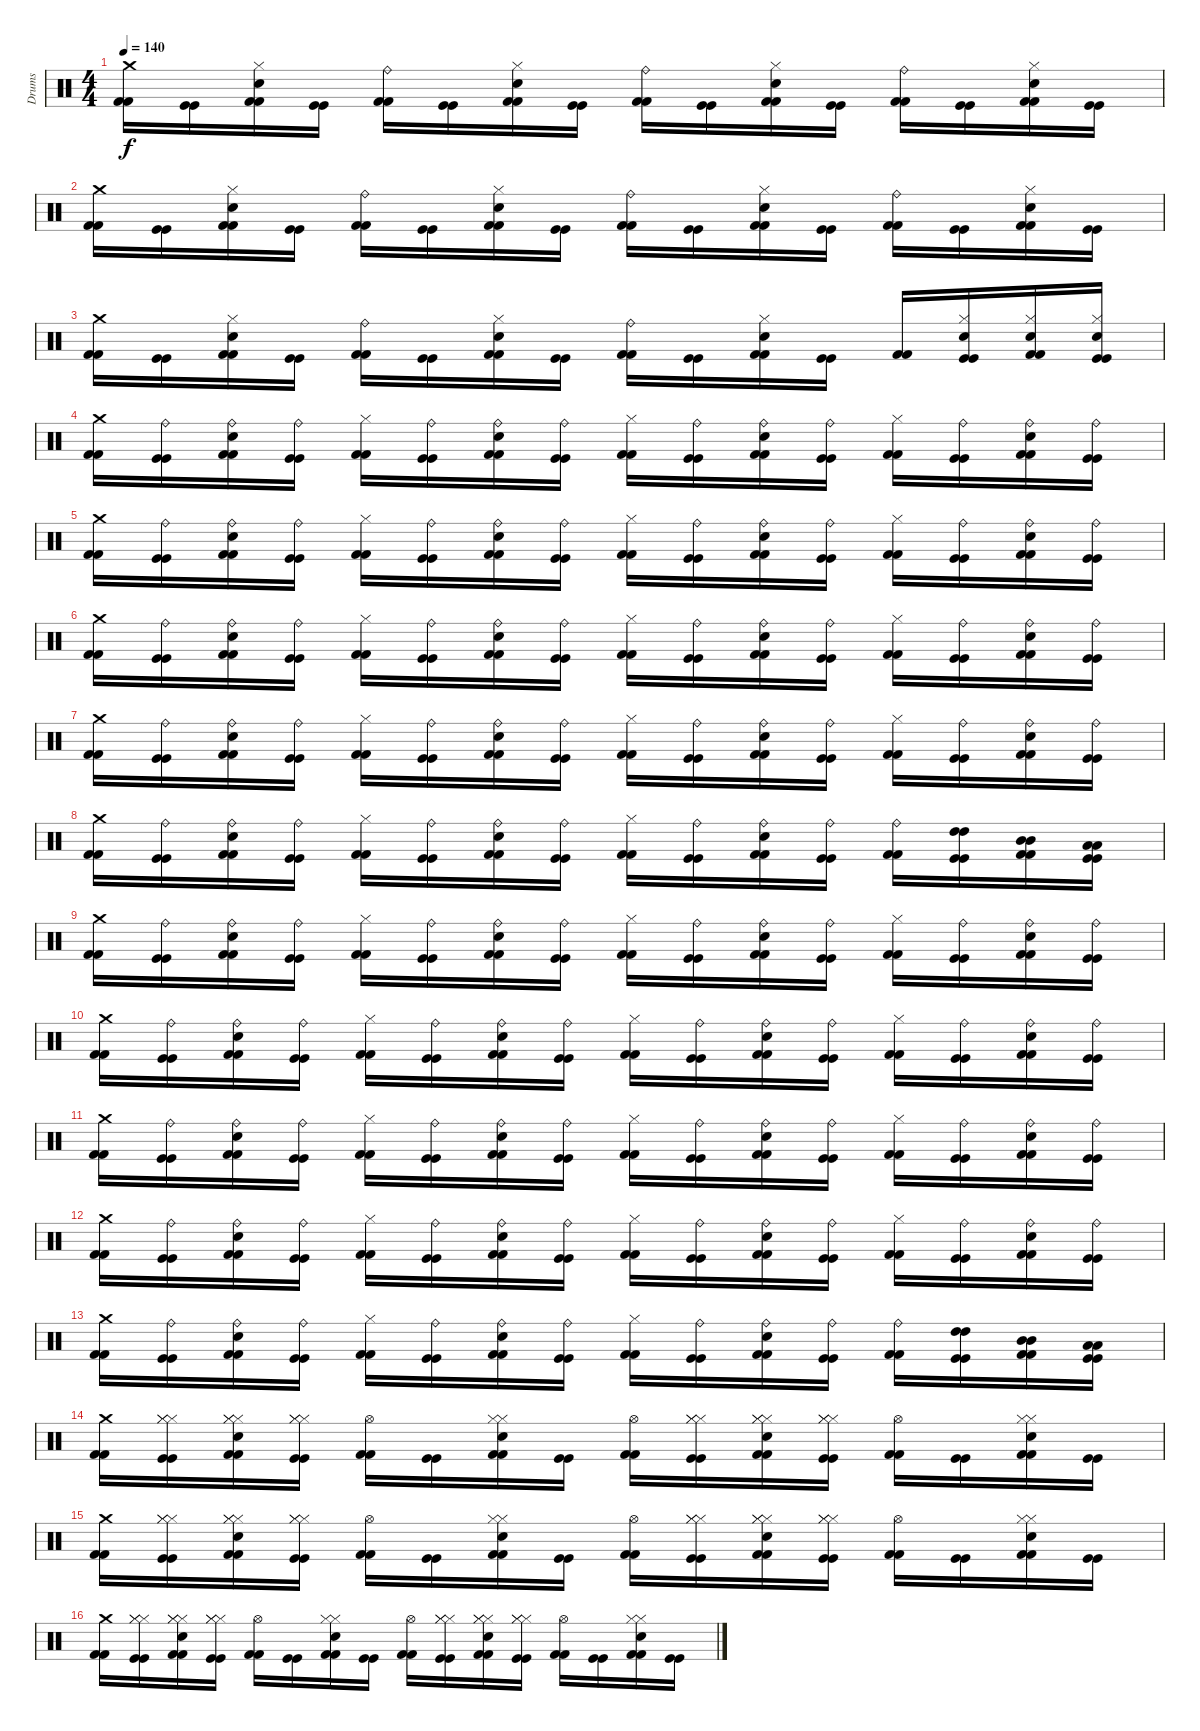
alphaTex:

\track ("Drums" "Drums") {instrument percussion}
\staff {score}
\articulation defaults
\ts (4 4)
\tempo 140
\clef neutral
\ks c
("Crash medium (hit)" "Kick (hit) 2" "Kick (hit) 2").16{dy f} ("Kick (hit)" "Kick (hit)").16 ("Hi-Hat (closed)" "Snare (hit) 2" "Kick (hit) 2" "Kick (hit) 2").16 ("Kick (hit)" "Kick (hit)").16 ("Ride (bell)" "Kick (hit) 2" "Kick (hit) 2").16 ("Kick (hit)" "Kick (hit)").16 ("Hi-Hat (closed)" "Snare (hit) 2" "Kick (hit) 2" "Kick (hit) 2").16 ("Kick (hit)" "Kick (hit)").16 ("Ride (bell)" "Kick (hit) 2" "Kick (hit) 2").16 ("Kick (hit)" "Kick (hit)").16 ("Hi-Hat (closed)" "Snare (hit) 2" "Kick (hit) 2" "Kick (hit) 2").16 ("Kick (hit)" "Kick (hit)").16 ("Ride (bell)" "Kick (hit) 2" "Kick (hit) 2").16 ("Kick (hit)" "Kick (hit)").16 ("Hi-Hat (closed)" "Snare (hit) 2" "Kick (hit) 2" "Kick (hit) 2").16 ("Kick (hit)" "Kick (hit)").16 |
("Crash medium (hit)" "Kick (hit) 2" "Kick (hit) 2").16 ("Kick (hit)" "Kick (hit)").16 ("Hi-Hat (closed)" "Snare (hit) 2" "Kick (hit) 2" "Kick (hit) 2").16 ("Kick (hit)" "Kick (hit)").16 ("Ride (bell)" "Kick (hit) 2" "Kick (hit) 2").16 ("Kick (hit)" "Kick (hit)").16 ("Hi-Hat (closed)" "Snare (hit) 2" "Kick (hit) 2" "Kick (hit) 2").16 ("Kick (hit)" "Kick (hit)").16 ("Ride (bell)" "Kick (hit) 2" "Kick (hit) 2").16 ("Kick (hit)" "Kick (hit)").16 ("Hi-Hat (closed)" "Snare (hit) 2" "Kick (hit) 2" "Kick (hit) 2").16 ("Kick (hit)" "Kick (hit)").16 ("Ride (bell)" "Kick (hit) 2" "Kick (hit) 2").16 ("Kick (hit)" "Kick (hit)").16 ("Hi-Hat (closed)" "Snare (hit) 2" "Kick (hit) 2" "Kick (hit) 2").16 ("Kick (hit)" "Kick (hit)").16 |
("Crash medium (hit)" "Kick (hit) 2" "Kick (hit) 2").16 ("Kick (hit)" "Kick (hit)").16 ("Hi-Hat (closed)" "Snare (hit) 2" "Kick (hit) 2" "Kick (hit) 2").16 ("Kick (hit)" "Kick (hit)").16 ("Ride (bell)" "Kick (hit) 2" "Kick (hit) 2").16 ("Kick (hit)" "Kick (hit)").16 ("Hi-Hat (closed)" "Snare (hit) 2" "Kick (hit) 2" "Kick (hit) 2").16 ("Kick (hit)" "Kick (hit)").16 ("Ride (bell)" "Kick (hit) 2" "Kick (hit) 2").16 ("Kick (hit)" "Kick (hit)").16 ("Hi-Hat (closed)" "Snare (hit) 2" "Kick (hit) 2" "Kick (hit) 2").16 ("Kick (hit)" "Kick (hit)").16 ("Kick (hit) 2" "Kick (hit) 2").16 ("Hi-Hat (closed)" "Snare (hit) 2" "Kick (hit)" "Kick (hit)").16 ("Hi-Hat (closed)" "Snare (hit) 2" "Kick (hit) 2" "Kick (hit) 2").16 ("Hi-Hat (closed)" "Snare (hit) 2" "Kick (hit)" "Kick (hit)").16 |
("Crash medium (hit)" "Kick (hit) 2" "Kick (hit) 2").16 ("Ride (bell)" "Kick (hit)" "Kick (hit)").16 ("Ride (bell)" "Snare (hit) 2" "Kick (hit) 2" "Kick (hit) 2").16 ("Ride (bell)" "Kick (hit)" "Kick (hit)").16 ("Hi-Hat (closed)" "Kick (hit) 2" "Kick (hit) 2").16 ("Ride (bell)" "Kick (hit)" "Kick (hit)").16 ("Ride (bell)" "Snare (hit) 2" "Kick (hit) 2" "Kick (hit) 2").16 ("Ride (bell)" "Kick (hit)" "Kick (hit)").16 ("Hi-Hat (closed)" "Kick (hit) 2" "Kick (hit) 2").16 ("Ride (bell)" "Kick (hit)" "Kick (hit)").16 ("Ride (bell)" "Snare (hit) 2" "Kick (hit) 2" "Kick (hit) 2").16 ("Ride (bell)" "Kick (hit)" "Kick (hit)").16 ("Hi-Hat (closed)" "Kick (hit) 2" "Kick (hit) 2").16 ("Ride (bell)" "Kick (hit)" "Kick (hit)").16 ("Ride (bell)" "Snare (hit) 2" "Kick (hit) 2" "Kick (hit) 2").16 ("Ride (bell)" "Kick (hit)" "Kick (hit)").16 |
("Crash medium (hit)" "Kick (hit) 2" "Kick (hit) 2").16 ("Ride (bell)" "Kick (hit)" "Kick (hit)").16 ("Ride (bell)" "Snare (hit) 2" "Kick (hit) 2" "Kick (hit) 2").16 ("Ride (bell)" "Kick (hit)" "Kick (hit)").16 ("Hi-Hat (closed)" "Kick (hit) 2" "Kick (hit) 2").16 ("Ride (bell)" "Kick (hit)" "Kick (hit)").16 ("Ride (bell)" "Snare (hit) 2" "Kick (hit) 2" "Kick (hit) 2").16 ("Ride (bell)" "Kick (hit)" "Kick (hit)").16 ("Hi-Hat (closed)" "Kick (hit) 2" "Kick (hit) 2").16 ("Ride (bell)" "Kick (hit)" "Kick (hit)").16 ("Ride (bell)" "Snare (hit) 2" "Kick (hit) 2" "Kick (hit) 2").16 ("Ride (bell)" "Kick (hit)" "Kick (hit)").16 ("Hi-Hat (closed)" "Kick (hit) 2" "Kick (hit) 2").16 ("Ride (bell)" "Kick (hit)" "Kick (hit)").16 ("Ride (bell)" "Snare (hit) 2" "Kick (hit) 2" "Kick (hit) 2").16 ("Ride (bell)" "Kick (hit)" "Kick (hit)").16 |
("Crash medium (hit)" "Kick (hit) 2" "Kick (hit) 2").16 ("Ride (bell)" "Kick (hit)" "Kick (hit)").16 ("Ride (bell)" "Snare (hit) 2" "Kick (hit) 2" "Kick (hit) 2").16 ("Ride (bell)" "Kick (hit)" "Kick (hit)").16 ("Hi-Hat (closed)" "Kick (hit) 2" "Kick (hit) 2").16 ("Ride (bell)" "Kick (hit)" "Kick (hit)").16 ("Ride (bell)" "Snare (hit) 2" "Kick (hit) 2" "Kick (hit) 2").16 ("Ride (bell)" "Kick (hit)" "Kick (hit)").16 ("Hi-Hat (closed)" "Kick (hit) 2" "Kick (hit) 2").16 ("Ride (bell)" "Kick (hit)" "Kick (hit)").16 ("Ride (bell)" "Snare (hit) 2" "Kick (hit) 2" "Kick (hit) 2").16 ("Ride (bell)" "Kick (hit)" "Kick (hit)").16 ("Hi-Hat (closed)" "Kick (hit) 2" "Kick (hit) 2").16 ("Ride (bell)" "Kick (hit)" "Kick (hit)").16 ("Ride (bell)" "Snare (hit) 2" "Kick (hit) 2" "Kick (hit) 2").16 ("Ride (bell)" "Kick (hit)" "Kick (hit)").16 |
("Crash medium (hit)" "Kick (hit) 2" "Kick (hit) 2").16 ("Ride (bell)" "Kick (hit)" "Kick (hit)").16 ("Ride (bell)" "Snare (hit) 2" "Kick (hit) 2" "Kick (hit) 2").16 ("Ride (bell)" "Kick (hit)" "Kick (hit)").16 ("Hi-Hat (closed)" "Kick (hit) 2" "Kick (hit) 2").16 ("Ride (bell)" "Kick (hit)" "Kick (hit)").16 ("Ride (bell)" "Snare (hit) 2" "Kick (hit) 2" "Kick (hit) 2").16 ("Ride (bell)" "Kick (hit)" "Kick (hit)").16 ("Hi-Hat (closed)" "Kick (hit) 2" "Kick (hit) 2").16 ("Ride (bell)" "Kick (hit)" "Kick (hit)").16 ("Ride (bell)" "Snare (hit) 2" "Kick (hit) 2" "Kick (hit) 2").16 ("Ride (bell)" "Kick (hit)" "Kick (hit)").16 ("Hi-Hat (closed)" "Kick (hit) 2" "Kick (hit) 2").16 ("Ride (bell)" "Kick (hit)" "Kick (hit)").16 ("Ride (bell)" "Snare (hit) 2" "Kick (hit) 2" "Kick (hit) 2").16 ("Ride (bell)" "Kick (hit)" "Kick (hit)").16 |
("Crash medium (hit)" "Kick (hit) 2" "Kick (hit) 2").16 ("Ride (bell)" "Kick (hit)" "Kick (hit)").16 ("Ride (bell)" "Snare (hit) 2" "Kick (hit) 2" "Kick (hit) 2").16 ("Ride (bell)" "Kick (hit)" "Kick (hit)").16 ("Hi-Hat (closed)" "Kick (hit) 2" "Kick (hit) 2").16 ("Ride (bell)" "Kick (hit)" "Kick (hit)").16 ("Ride (bell)" "Snare (hit) 2" "Kick (hit) 2" "Kick (hit) 2").16 ("Ride (bell)" "Kick (hit)" "Kick (hit)").16 ("Hi-Hat (closed)" "Kick (hit) 2" "Kick (hit) 2").16 ("Ride (bell)" "Kick (hit)" "Kick (hit)").16 ("Ride (bell)" "Snare (hit) 2" "Kick (hit) 2" "Kick (hit) 2").16 ("Ride (bell)" "Kick (hit)" "Kick (hit)").16 ("Ride (bell)" "Kick (hit) 2" "Kick (hit) 2").16 ("High Tom (hit)" "High Tom (hit)" "Kick (hit)" "Kick (hit)").16 ("Mid Tom (hit)" "Mid Tom (hit)" "Kick (hit) 2" "Kick (hit) 2").16 ("Low Tom (hit)" "Low Tom (hit)" "Kick (hit)" "Kick (hit)").16 |
("Crash medium (hit)" "Kick (hit) 2" "Kick (hit) 2").16 ("Ride (bell)" "Kick (hit)" "Kick (hit)").16 ("Ride (bell)" "Snare (hit) 2" "Kick (hit) 2" "Kick (hit) 2").16 ("Ride (bell)" "Kick (hit)" "Kick (hit)").16 ("Hi-Hat (closed)" "Kick (hit) 2" "Kick (hit) 2").16 ("Ride (bell)" "Kick (hit)" "Kick (hit)").16 ("Ride (bell)" "Snare (hit) 2" "Kick (hit) 2" "Kick (hit) 2").16 ("Ride (bell)" "Kick (hit)" "Kick (hit)").16 ("Hi-Hat (closed)" "Kick (hit) 2" "Kick (hit) 2").16 ("Ride (bell)" "Kick (hit)" "Kick (hit)").16 ("Ride (bell)" "Snare (hit) 2" "Kick (hit) 2" "Kick (hit) 2").16 ("Ride (bell)" "Kick (hit)" "Kick (hit)").16 ("Hi-Hat (closed)" "Kick (hit) 2" "Kick (hit) 2").16 ("Ride (bell)" "Kick (hit)" "Kick (hit)").16 ("Ride (bell)" "Snare (hit) 2" "Kick (hit) 2" "Kick (hit) 2").16 ("Ride (bell)" "Kick (hit)" "Kick (hit)").16 |
("Crash medium (hit)" "Kick (hit) 2" "Kick (hit) 2").16 ("Ride (bell)" "Kick (hit)" "Kick (hit)").16 ("Ride (bell)" "Snare (hit) 2" "Kick (hit) 2" "Kick (hit) 2").16 ("Ride (bell)" "Kick (hit)" "Kick (hit)").16 ("Hi-Hat (closed)" "Kick (hit) 2" "Kick (hit) 2").16 ("Ride (bell)" "Kick (hit)" "Kick (hit)").16 ("Ride (bell)" "Snare (hit) 2" "Kick (hit) 2" "Kick (hit) 2").16 ("Ride (bell)" "Kick (hit)" "Kick (hit)").16 ("Hi-Hat (closed)" "Kick (hit) 2" "Kick (hit) 2").16 ("Ride (bell)" "Kick (hit)" "Kick (hit)").16 ("Ride (bell)" "Snare (hit) 2" "Kick (hit) 2" "Kick (hit) 2").16 ("Ride (bell)" "Kick (hit)" "Kick (hit)").16 ("Hi-Hat (closed)" "Kick (hit) 2" "Kick (hit) 2").16 ("Ride (bell)" "Kick (hit)" "Kick (hit)").16 ("Ride (bell)" "Snare (hit) 2" "Kick (hit) 2" "Kick (hit) 2").16 ("Ride (bell)" "Kick (hit)" "Kick (hit)").16 |
("Crash medium (hit)" "Kick (hit) 2" "Kick (hit) 2").16 ("Ride (bell)" "Kick (hit)" "Kick (hit)").16 ("Ride (bell)" "Snare (hit) 2" "Kick (hit) 2" "Kick (hit) 2").16 ("Ride (bell)" "Kick (hit)" "Kick (hit)").16 ("Hi-Hat (closed)" "Kick (hit) 2" "Kick (hit) 2").16 ("Ride (bell)" "Kick (hit)" "Kick (hit)").16 ("Ride (bell)" "Snare (hit) 2" "Kick (hit) 2" "Kick (hit) 2").16 ("Ride (bell)" "Kick (hit)" "Kick (hit)").16 ("Hi-Hat (closed)" "Kick (hit) 2" "Kick (hit) 2").16 ("Ride (bell)" "Kick (hit)" "Kick (hit)").16 ("Ride (bell)" "Snare (hit) 2" "Kick (hit) 2" "Kick (hit) 2").16 ("Ride (bell)" "Kick (hit)" "Kick (hit)").16 ("Hi-Hat (closed)" "Kick (hit) 2" "Kick (hit) 2").16 ("Ride (bell)" "Kick (hit)" "Kick (hit)").16 ("Ride (bell)" "Snare (hit) 2" "Kick (hit) 2" "Kick (hit) 2").16 ("Ride (bell)" "Kick (hit)" "Kick (hit)").16 |
("Crash medium (hit)" "Kick (hit) 2" "Kick (hit) 2").16 ("Ride (bell)" "Kick (hit)" "Kick (hit)").16 ("Ride (bell)" "Snare (hit) 2" "Kick (hit) 2" "Kick (hit) 2").16 ("Ride (bell)" "Kick (hit)" "Kick (hit)").16 ("Hi-Hat (closed)" "Kick (hit) 2" "Kick (hit) 2").16 ("Ride (bell)" "Kick (hit)" "Kick (hit)").16 ("Ride (bell)" "Snare (hit) 2" "Kick (hit) 2" "Kick (hit) 2").16 ("Ride (bell)" "Kick (hit)" "Kick (hit)").16 ("Hi-Hat (closed)" "Kick (hit) 2" "Kick (hit) 2").16 ("Ride (bell)" "Kick (hit)" "Kick (hit)").16 ("Ride (bell)" "Snare (hit) 2" "Kick (hit) 2" "Kick (hit) 2").16 ("Ride (bell)" "Kick (hit)" "Kick (hit)").16 ("Hi-Hat (closed)" "Kick (hit) 2" "Kick (hit) 2").16 ("Ride (bell)" "Kick (hit)" "Kick (hit)").16 ("Ride (bell)" "Snare (hit) 2" "Kick (hit) 2" "Kick (hit) 2").16 ("Ride (bell)" "Kick (hit)" "Kick (hit)").16 |
("Crash medium (hit)" "Kick (hit) 2" "Kick (hit) 2").16 ("Ride (bell)" "Kick (hit)" "Kick (hit)").16 ("Ride (bell)" "Snare (hit) 2" "Kick (hit) 2" "Kick (hit) 2").16 ("Ride (bell)" "Kick (hit)" "Kick (hit)").16 ("Hi-Hat (closed)" "Kick (hit) 2" "Kick (hit) 2").16 ("Ride (bell)" "Kick (hit)" "Kick (hit)").16 ("Ride (bell)" "Snare (hit) 2" "Kick (hit) 2" "Kick (hit) 2").16 ("Ride (bell)" "Kick (hit)" "Kick (hit)").16 ("Hi-Hat (closed)" "Kick (hit) 2" "Kick (hit) 2").16 ("Ride (bell)" "Kick (hit)" "Kick (hit)").16 ("Ride (bell)" "Snare (hit) 2" "Kick (hit) 2" "Kick (hit) 2").16 ("Ride (bell)" "Kick (hit)" "Kick (hit)").16 ("Ride (bell)" "Kick (hit) 2" "Kick (hit) 2").16 ("High Tom (hit)" "High Tom (hit)" "Kick (hit)" "Kick (hit)").16 ("Mid Tom (hit)" "Mid Tom (hit)" "Kick (hit) 2" "Kick (hit) 2").16 ("Low Tom (hit)" "Low Tom (hit)" "Kick (hit)" "Kick (hit)").16 |
("Crash medium (hit)" "Kick (hit) 2" "Kick (hit) 2").16 ("Hi-Hat (closed)" "Hi-Hat (closed)" "Hi-Hat (closed)" "Kick (hit)" "Kick (hit)").16 ("Hi-Hat (closed)" "Hi-Hat (closed)" "Snare (hit) 2" "Hi-Hat (closed)" "Kick (hit) 2" "Kick (hit) 2").16 ("Hi-Hat (closed)" "Hi-Hat (closed)" "Hi-Hat (closed)" "Kick (hit)" "Kick (hit)").16 ("Hi-Hat (open)" "Kick (hit) 2" "Kick (hit) 2").16 ("Kick (hit)" "Kick (hit)").16 ("Hi-Hat (closed)" "Hi-Hat (closed)" "Snare (hit) 2" "Kick (hit) 2" "Kick (hit) 2").16 ("Kick (hit)" "Kick (hit)").16 ("Hi-Hat (open)" "Kick (hit) 2" "Kick (hit) 2").16 ("Hi-Hat (closed)" "Hi-Hat (closed)" "Hi-Hat (closed)" "Kick (hit)" "Kick (hit)").16 ("Hi-Hat (closed)" "Hi-Hat (closed)" "Snare (hit) 2" "Hi-Hat (closed)" "Kick (hit) 2" "Kick (hit) 2").16 ("Hi-Hat (closed)" "Hi-Hat (closed)" "Hi-Hat (closed)" "Kick (hit)" "Kick (hit)").16 ("Hi-Hat (open)" "Kick (hit) 2" "Kick (hit) 2").16 ("Kick (hit)" "Kick (hit)").16 ("Hi-Hat (closed)" "Hi-Hat (closed)" "Snare (hit) 2" "Kick (hit) 2" "Kick (hit) 2").16 ("Kick (hit)" "Kick (hit)").16 |
("Crash medium (hit)" "Kick (hit) 2" "Kick (hit) 2").16 ("Hi-Hat (closed)" "Hi-Hat (closed)" "Hi-Hat (closed)" "Kick (hit)" "Kick (hit)").16 ("Hi-Hat (closed)" "Hi-Hat (closed)" "Snare (hit) 2" "Hi-Hat (closed)" "Kick (hit) 2" "Kick (hit) 2").16 ("Hi-Hat (closed)" "Hi-Hat (closed)" "Hi-Hat (closed)" "Kick (hit)" "Kick (hit)").16 ("Hi-Hat (open)" "Kick (hit) 2" "Kick (hit) 2").16 ("Kick (hit)" "Kick (hit)").16 ("Hi-Hat (closed)" "Hi-Hat (closed)" "Snare (hit) 2" "Kick (hit) 2" "Kick (hit) 2").16 ("Kick (hit)" "Kick (hit)").16 ("Hi-Hat (open)" "Kick (hit) 2" "Kick (hit) 2").16 ("Hi-Hat (closed)" "Hi-Hat (closed)" "Hi-Hat (closed)" "Kick (hit)" "Kick (hit)").16 ("Hi-Hat (closed)" "Hi-Hat (closed)" "Snare (hit) 2" "Hi-Hat (closed)" "Kick (hit) 2" "Kick (hit) 2").16 ("Hi-Hat (closed)" "Hi-Hat (closed)" "Hi-Hat (closed)" "Kick (hit)" "Kick (hit)").16 ("Hi-Hat (open)" "Kick (hit) 2" "Kick (hit) 2").16 ("Kick (hit)" "Kick (hit)").16 ("Hi-Hat (closed)" "Hi-Hat (closed)" "Snare (hit) 2" "Kick (hit) 2" "Kick (hit) 2").16 ("Kick (hit)" "Kick (hit)").16 |
("Crash medium (hit)" "Kick (hit) 2" "Kick (hit) 2").16 ("Hi-Hat (closed)" "Hi-Hat (closed)" "Hi-Hat (closed)" "Kick (hit)" "Kick (hit)").16 ("Hi-Hat (closed)" "Hi-Hat (closed)" "Snare (hit) 2" "Hi-Hat (closed)" "Kick (hit) 2" "Kick (hit) 2").16 ("Hi-Hat (closed)" "Hi-Hat (closed)" "Hi-Hat (closed)" "Kick (hit)" "Kick (hit)").16 ("Hi-Hat (open)" "Kick (hit) 2" "Kick (hit) 2").16 ("Kick (hit)" "Kick (hit)").16 ("Hi-Hat (closed)" "Hi-Hat (closed)" "Snare (hit) 2" "Kick (hit) 2" "Kick (hit) 2").16 ("Kick (hit)" "Kick (hit)").16 ("Hi-Hat (open)" "Kick (hit) 2" "Kick (hit) 2").16 ("Hi-Hat (closed)" "Hi-Hat (closed)" "Hi-Hat (closed)" "Kick (hit)" "Kick (hit)").16 ("Hi-Hat (closed)" "Hi-Hat (closed)" "Snare (hit) 2" "Hi-Hat (closed)" "Kick (hit) 2" "Kick (hit) 2").16 ("Hi-Hat (closed)" "Hi-Hat (closed)" "Hi-Hat (closed)" "Kick (hit)" "Kick (hit)").16 ("Hi-Hat (open)" "Kick (hit) 2" "Kick (hit) 2").16 ("Kick (hit)" "Kick (hit)").16 ("Hi-Hat (closed)" "Hi-Hat (closed)" "Snare (hit) 2" "Kick (hit) 2" "Kick (hit) 2").16 ("Kick (hit)" "Kick (hit)").16
